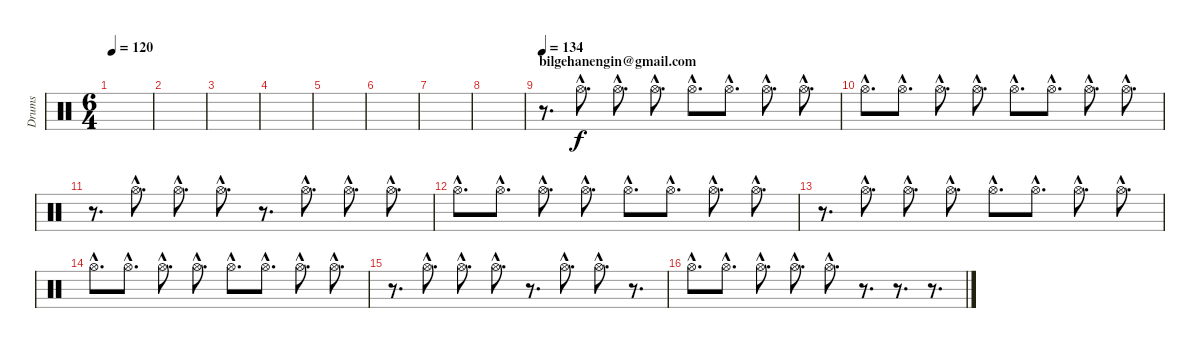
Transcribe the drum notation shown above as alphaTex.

\track ("Drums" "Drums") {instrument percussion}
\staff {score}
\articulation defaults
\ts (6 4)
\tempo 120
\clef neutral
\ks c
|
|
|
|
|
|
|
|
\section ("" "bilgehanengin@gmail.com")
\tempo 134
r.8{d} "Hi-Hat (open)"{hac}.8{d} "Hi-Hat (open)"{hac}.8{d} "Hi-Hat (open)"{hac}.8{d} "Hi-Hat (open)"{hac}.8{d} "Hi-Hat (open)"{hac}.8{d} "Hi-Hat (open)"{hac}.8{d} "Hi-Hat (open)"{hac}.8{d} |
"Hi-Hat (open)"{hac}.8{d} "Hi-Hat (open)"{hac}.8{d} "Hi-Hat (open)"{hac}.8{d} "Hi-Hat (open)"{hac}.8{d} "Hi-Hat (open)"{hac}.8{d} "Hi-Hat (open)"{hac}.8{d} "Hi-Hat (open)"{hac}.8{d} "Hi-Hat (open)"{hac}.8{d} |
r.8{d} "Hi-Hat (open)"{hac}.8{d} "Hi-Hat (open)"{hac}.8{d} "Hi-Hat (open)"{hac}.8{d} r.8{d} "Hi-Hat (open)"{hac}.8{d} "Hi-Hat (open)"{hac}.8{d} "Hi-Hat (open)"{hac}.8{d} |
"Hi-Hat (open)"{hac}.8{d} "Hi-Hat (open)"{hac}.8{d} "Hi-Hat (open)"{hac}.8{d} "Hi-Hat (open)"{hac}.8{d} "Hi-Hat (open)"{hac}.8{d} "Hi-Hat (open)"{hac}.8{d} "Hi-Hat (open)"{hac}.8{d} "Hi-Hat (open)"{hac}.8{d} |
r.8{d} "Hi-Hat (open)"{hac}.8{d} "Hi-Hat (open)"{hac}.8{d} "Hi-Hat (open)"{hac}.8{d} "Hi-Hat (open)"{hac}.8{d} "Hi-Hat (open)"{hac}.8{d} "Hi-Hat (open)"{hac}.8{d} "Hi-Hat (open)"{hac}.8{d} |
"Hi-Hat (open)"{hac}.8{d} "Hi-Hat (open)"{hac}.8{d} "Hi-Hat (open)"{hac}.8{d} "Hi-Hat (open)"{hac}.8{d} "Hi-Hat (open)"{hac}.8{d} "Hi-Hat (open)"{hac}.8{d} "Hi-Hat (open)"{hac}.8{d} "Hi-Hat (open)"{hac}.8{d} |
r.8{d} "Hi-Hat (open)"{hac}.8{d} "Hi-Hat (open)"{hac}.8{d} "Hi-Hat (open)"{hac}.8{d} r.8{d} "Hi-Hat (open)"{hac}.8{d} "Hi-Hat (open)"{hac}.8{d} r.8{d} |
"Hi-Hat (open)"{hac}.8{d} "Hi-Hat (open)"{hac}.8{d} "Hi-Hat (open)"{hac}.8{d} "Hi-Hat (open)"{hac}.8{d} "Hi-Hat (open)"{hac}.8{d} r.8{d} r.8{d} r.8{d}
